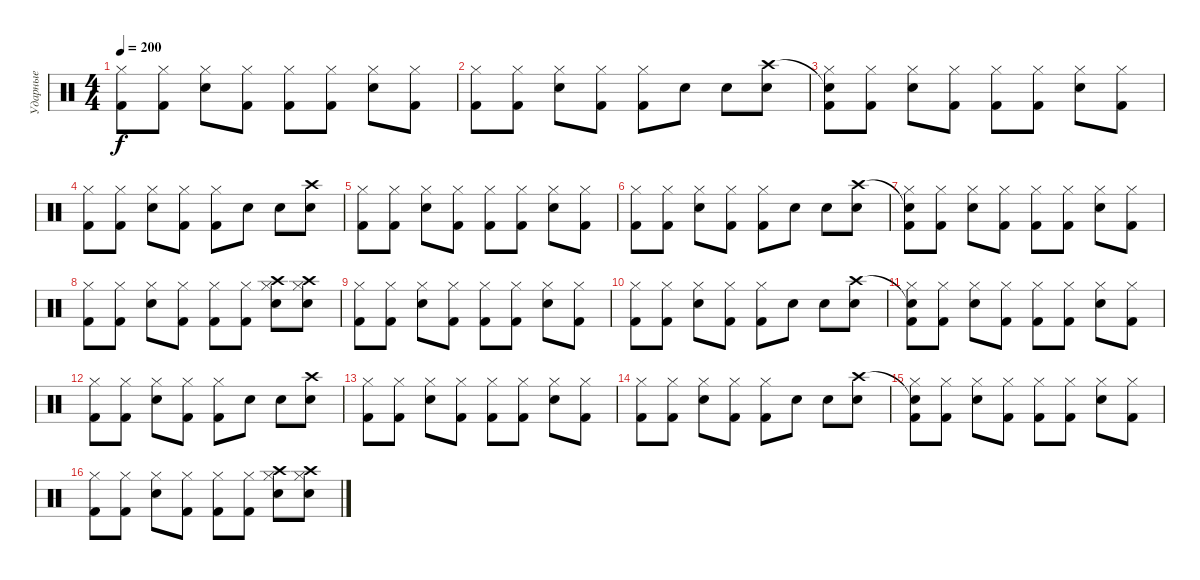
\track ("Ударные" "Ударные") {instrument percussion}
\staff {score}
\articulation defaults
\ts (4 4)
\tempo 200
\clef neutral
\ks c
("Hi-Hat (closed)" "Kick (hit) 2").8{dy f} ("Hi-Hat (closed)" "Kick (hit) 2").8 ("Hi-Hat (closed)" "Electric Snare (hit)").8 ("Hi-Hat (closed)" "Kick (hit) 2").8 ("Hi-Hat (closed)" "Kick (hit) 2").8 ("Hi-Hat (closed)" "Kick (hit) 2").8 ("Hi-Hat (closed)" "Electric Snare (hit)").8 ("Hi-Hat (closed)" "Kick (hit) 2").8 |
("Hi-Hat (closed)" "Kick (hit) 2").8 ("Hi-Hat (closed)" "Kick (hit) 2").8 ("Hi-Hat (closed)" "Electric Snare (hit)").8 ("Hi-Hat (closed)" "Kick (hit) 2").8 ("Hi-Hat (closed)" "Kick (hit) 2").8 "Electric Snare (hit)".8 "Electric Snare (hit)".8 ("Crash high (hit)" "Electric Snare (hit)").8 |
("Snare (hit)"{t} "Hi-Hat (closed)" "Kick (hit) 2").8 ("Hi-Hat (closed)" "Kick (hit) 2").8 ("Hi-Hat (closed)" "Electric Snare (hit)").8 ("Hi-Hat (closed)" "Kick (hit) 2").8 ("Hi-Hat (closed)" "Kick (hit) 2").8 ("Hi-Hat (closed)" "Kick (hit) 2").8 ("Hi-Hat (closed)" "Electric Snare (hit)").8 ("Hi-Hat (closed)" "Kick (hit) 2").8 |
("Hi-Hat (closed)" "Kick (hit) 2").8 ("Hi-Hat (closed)" "Kick (hit) 2").8 ("Hi-Hat (closed)" "Electric Snare (hit)").8 ("Hi-Hat (closed)" "Kick (hit) 2").8 ("Hi-Hat (closed)" "Kick (hit) 2").8 "Electric Snare (hit)".8 "Electric Snare (hit)".8 ("Crash high (hit)" "Electric Snare (hit)").8 |
("Hi-Hat (closed)" "Kick (hit) 2").8 ("Hi-Hat (closed)" "Kick (hit) 2").8 ("Hi-Hat (closed)" "Electric Snare (hit)").8 ("Hi-Hat (closed)" "Kick (hit) 2").8 ("Hi-Hat (closed)" "Kick (hit) 2").8 ("Hi-Hat (closed)" "Kick (hit) 2").8 ("Hi-Hat (closed)" "Electric Snare (hit)").8 ("Hi-Hat (closed)" "Kick (hit) 2").8 |
("Hi-Hat (closed)" "Kick (hit) 2").8 ("Hi-Hat (closed)" "Kick (hit) 2").8 ("Hi-Hat (closed)" "Electric Snare (hit)").8 ("Hi-Hat (closed)" "Kick (hit) 2").8 ("Hi-Hat (closed)" "Kick (hit) 2").8 "Electric Snare (hit)".8 "Electric Snare (hit)".8 ("Crash high (hit)" "Electric Snare (hit)").8 |
("Snare (hit)"{t} "Hi-Hat (closed)" "Kick (hit) 2").8 ("Hi-Hat (closed)" "Kick (hit) 2").8 ("Hi-Hat (closed)" "Electric Snare (hit)").8 ("Hi-Hat (closed)" "Kick (hit) 2").8 ("Hi-Hat (closed)" "Kick (hit) 2").8 ("Hi-Hat (closed)" "Kick (hit) 2").8 ("Hi-Hat (closed)" "Electric Snare (hit)").8 ("Hi-Hat (closed)" "Kick (hit) 2").8 |
("Hi-Hat (closed)" "Kick (hit) 2").8 ("Hi-Hat (closed)" "Kick (hit) 2").8 ("Hi-Hat (closed)" "Electric Snare (hit)").8 ("Hi-Hat (closed)" "Kick (hit) 2").8 ("Hi-Hat (closed)" "Kick (hit) 2").8 ("Hi-Hat (closed)" "Kick (hit) 2").8 ("Hi-Hat (closed)" "Crash high (hit)" "Electric Snare (hit)").8 ("Hi-Hat (closed)" "Crash high (hit)" "Electric Snare (hit)").8 |
("Hi-Hat (closed)" "Kick (hit) 2").8 ("Hi-Hat (closed)" "Kick (hit) 2").8 ("Hi-Hat (closed)" "Electric Snare (hit)").8 ("Hi-Hat (closed)" "Kick (hit) 2").8 ("Hi-Hat (closed)" "Kick (hit) 2").8 ("Hi-Hat (closed)" "Kick (hit) 2").8 ("Hi-Hat (closed)" "Electric Snare (hit)").8 ("Hi-Hat (closed)" "Kick (hit) 2").8 |
("Hi-Hat (closed)" "Kick (hit) 2").8 ("Hi-Hat (closed)" "Kick (hit) 2").8 ("Hi-Hat (closed)" "Electric Snare (hit)").8 ("Hi-Hat (closed)" "Kick (hit) 2").8 ("Hi-Hat (closed)" "Kick (hit) 2").8 "Electric Snare (hit)".8 "Electric Snare (hit)".8 ("Crash high (hit)" "Electric Snare (hit)").8 |
("Snare (hit)"{t} "Hi-Hat (closed)" "Kick (hit) 2").8 ("Hi-Hat (closed)" "Kick (hit) 2").8 ("Hi-Hat (closed)" "Electric Snare (hit)").8 ("Hi-Hat (closed)" "Kick (hit) 2").8 ("Hi-Hat (closed)" "Kick (hit) 2").8 ("Hi-Hat (closed)" "Kick (hit) 2").8 ("Hi-Hat (closed)" "Electric Snare (hit)").8 ("Hi-Hat (closed)" "Kick (hit) 2").8 |
("Hi-Hat (closed)" "Kick (hit) 2").8 ("Hi-Hat (closed)" "Kick (hit) 2").8 ("Hi-Hat (closed)" "Electric Snare (hit)").8 ("Hi-Hat (closed)" "Kick (hit) 2").8 ("Hi-Hat (closed)" "Kick (hit) 2").8 "Electric Snare (hit)".8 "Electric Snare (hit)".8 ("Crash high (hit)" "Electric Snare (hit)").8 |
("Hi-Hat (closed)" "Kick (hit) 2").8 ("Hi-Hat (closed)" "Kick (hit) 2").8 ("Hi-Hat (closed)" "Electric Snare (hit)").8 ("Hi-Hat (closed)" "Kick (hit) 2").8 ("Hi-Hat (closed)" "Kick (hit) 2").8 ("Hi-Hat (closed)" "Kick (hit) 2").8 ("Hi-Hat (closed)" "Electric Snare (hit)").8 ("Hi-Hat (closed)" "Kick (hit) 2").8 |
("Hi-Hat (closed)" "Kick (hit) 2").8 ("Hi-Hat (closed)" "Kick (hit) 2").8 ("Hi-Hat (closed)" "Electric Snare (hit)").8 ("Hi-Hat (closed)" "Kick (hit) 2").8 ("Hi-Hat (closed)" "Kick (hit) 2").8 "Electric Snare (hit)".8 "Electric Snare (hit)".8 ("Crash high (hit)" "Electric Snare (hit)").8 |
("Snare (hit)"{t} "Hi-Hat (closed)" "Kick (hit) 2").8 ("Hi-Hat (closed)" "Kick (hit) 2").8 ("Hi-Hat (closed)" "Electric Snare (hit)").8 ("Hi-Hat (closed)" "Kick (hit) 2").8 ("Hi-Hat (closed)" "Kick (hit) 2").8 ("Hi-Hat (closed)" "Kick (hit) 2").8 ("Hi-Hat (closed)" "Electric Snare (hit)").8 ("Hi-Hat (closed)" "Kick (hit) 2").8 |
("Hi-Hat (closed)" "Kick (hit) 2").8 ("Hi-Hat (closed)" "Kick (hit) 2").8 ("Hi-Hat (closed)" "Electric Snare (hit)").8 ("Hi-Hat (closed)" "Kick (hit) 2").8 ("Hi-Hat (closed)" "Kick (hit) 2").8 ("Hi-Hat (closed)" "Kick (hit) 2").8 ("Hi-Hat (closed)" "Crash high (hit)" "Electric Snare (hit)").8 ("Hi-Hat (closed)" "Crash high (hit)" "Electric Snare (hit)").8
